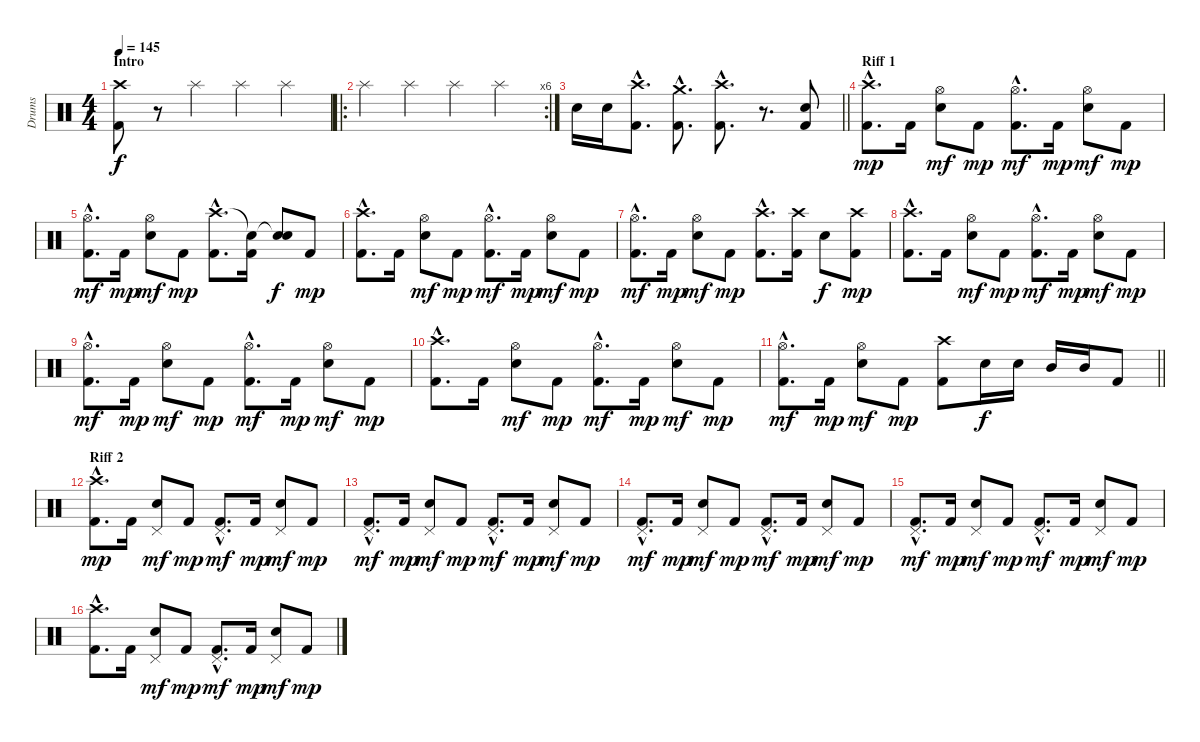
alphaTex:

\track ("Drums" "Drums") {instrument percussion}
\staff {score}
\articulation defaults
\ts (4 4)
\section ("" "Intro")
\tempo 145
\clef neutral
\ks c
("Kick (hit) 2" "Crash high (hit)").8{dy f} r.8 "Splash (hit)".4 "Splash (hit)".4 "Splash (hit)".4 |
\ro
\rc 6 "Splash (hit)".4 "Splash (hit)".4 "Splash (hit)".4 "Splash (hit)".4
|
\barLineRight lightlight "Electric Snare (hit)".16 "Electric Snare (hit)".16
("Kick (hit) 2"{hac} "Crash high (hit)"{hac}).8{d} ("Kick (hit) 2"{hac} "Crash medium (hit)"{hac}).8{d} ("Kick (hit) 2"{hac} "Crash high (hit)"{hac}).8{d} r.8{d} ("Kick (hit) 2" "Electric Snare (hit)").8 |
\section ("" "Riff 1")
("Kick (hit) 2"{hac} "Crash high (hit)"{hac}).8{d dy mp} "Kick (hit) 2".16 ("Electric Snare (hit)" "Hi-Hat (open)").8{dy mf} "Kick (hit) 2".8{dy mp} ("Kick (hit) 2"{hac} "Hi-Hat (open)"{hac}).8{d dy mf} "Kick (hit) 2".16{dy mp} ("Electric Snare (hit)" "Hi-Hat (open)").8{dy mf} "Kick (hit) 2".8{dy mp} |
("Kick (hit) 2"{hac} "Hi-Hat (open)"{hac}).8{d dy mf} "Kick (hit) 2".16{dy mp} ("Electric Snare (hit)" "Hi-Hat (open)").8{dy mf} "Kick (hit) 2".8{dy mp} ("Kick (hit) 2"{hac} "Crash high (hit)"{hac}).8{d} ("Kick (hit) 2" "Snare (hit)"{t}).16 ("Electric Snare (hit)" "Snare (hit)"{t}).8{dy f} "Kick (hit) 2".8{dy mp} |
("Kick (hit) 2"{hac} "Crash high (hit)"{hac}).8{d} "Kick (hit) 2".16 ("Electric Snare (hit)" "Hi-Hat (open)").8{dy mf} "Kick (hit) 2".8{dy mp} ("Kick (hit) 2"{hac} "Hi-Hat (open)"{hac}).8{d dy mf} "Kick (hit) 2".16{dy mp} ("Electric Snare (hit)" "Hi-Hat (open)").8{dy mf} "Kick (hit) 2".8{dy mp} |
("Kick (hit) 2"{hac} "Hi-Hat (open)"{hac}).8{d dy mf} "Kick (hit) 2".16{dy mp} ("Electric Snare (hit)" "Hi-Hat (open)").8{dy mf} "Kick (hit) 2".8{dy mp} ("Kick (hit) 2"{hac} "Crash high (hit)"{hac}).8{d} ("Kick (hit) 2" "Crash high (hit)").16 "Electric Snare (hit)".8{dy f} ("Kick (hit) 2" "Crash high (hit)").8{dy mp} |
("Kick (hit) 2"{hac} "Crash high (hit)"{hac}).8{d} "Kick (hit) 2".16 ("Electric Snare (hit)" "Hi-Hat (open)").8{dy mf} "Kick (hit) 2".8{dy mp} ("Kick (hit) 2"{hac} "Hi-Hat (open)"{hac}).8{d dy mf} "Kick (hit) 2".16{dy mp} ("Electric Snare (hit)" "Hi-Hat (open)").8{dy mf} "Kick (hit) 2".8{dy mp} |
("Kick (hit) 2"{hac} "Hi-Hat (open)"{hac}).8{d dy mf} "Kick (hit) 2".16{dy mp} ("Electric Snare (hit)" "Hi-Hat (open)").8{dy mf} "Kick (hit) 2".8{dy mp} ("Kick (hit) 2"{hac} "Hi-Hat (open)"{hac}).8{d dy mf} "Kick (hit) 2".16{dy mp} ("Electric Snare (hit)" "Hi-Hat (open)").8{dy mf} "Kick (hit) 2".8{dy mp} |
("Kick (hit) 2"{hac} "Crash high (hit)"{hac}).8{d} "Kick (hit) 2".16 ("Electric Snare (hit)" "Hi-Hat (open)").8{dy mf} "Kick (hit) 2".8{dy mp} ("Kick (hit) 2"{hac} "Hi-Hat (open)"{hac}).8{d dy mf} "Kick (hit) 2".16{dy mp} ("Electric Snare (hit)" "Hi-Hat (open)").8{dy mf} "Kick (hit) 2".8{dy mp} |
\barLineRight lightlight
("Kick (hit) 2"{hac} "Hi-Hat (open)"{hac}).8{d dy mf} "Kick (hit) 2".16{dy mp} ("Electric Snare (hit)" "Hi-Hat (open)").8{dy mf} "Kick (hit) 2".8{dy mp} ("Kick (hit) 2" "Crash high (hit)").8 "Electric Snare (hit)".16{dy f} "Electric Snare (hit)".16 "Mid Tom (hit)".16 "Mid Tom (hit)".16 "Kick (hit) 2".8 |
\section ("" "Riff 2")
("Kick (hit) 2"{hac} "Crash high (hit)"{hac}).8{d dy mp} "Kick (hit) 2".16 ("Electric Snare (hit)" "Pedal Hi-Hat (hit)").8{dy mf} "Kick (hit) 2".8{dy mp} ("Kick (hit) 2"{hac} "Pedal Hi-Hat (hit)"{hac}).8{d dy mf} "Kick (hit) 2".16{dy mp} ("Electric Snare (hit)" "Pedal Hi-Hat (hit)").8{dy mf} "Kick (hit) 2".8{dy mp} |
("Kick (hit) 2"{hac} "Pedal Hi-Hat (hit)"{hac}).8{d dy mf} "Kick (hit) 2".16{dy mp} ("Electric Snare (hit)" "Pedal Hi-Hat (hit)").8{dy mf} "Kick (hit) 2".8{dy mp} ("Kick (hit) 2"{hac} "Pedal Hi-Hat (hit)"{hac}).8{d dy mf} "Kick (hit) 2".16{dy mp} ("Electric Snare (hit)" "Pedal Hi-Hat (hit)").8{dy mf} "Kick (hit) 2".8{dy mp} |
("Kick (hit) 2"{hac} "Pedal Hi-Hat (hit)"{hac}).8{d dy mf} "Kick (hit) 2".16{dy mp} ("Electric Snare (hit)" "Pedal Hi-Hat (hit)").8{dy mf} "Kick (hit) 2".8{dy mp} ("Kick (hit) 2"{hac} "Pedal Hi-Hat (hit)"{hac}).8{d dy mf} "Kick (hit) 2".16{dy mp} ("Electric Snare (hit)" "Pedal Hi-Hat (hit)").8{dy mf} "Kick (hit) 2".8{dy mp} |
("Kick (hit) 2"{hac} "Pedal Hi-Hat (hit)"{hac}).8{d dy mf} "Kick (hit) 2".16{dy mp} ("Electric Snare (hit)" "Pedal Hi-Hat (hit)").8{dy mf} "Kick (hit) 2".8{dy mp} ("Kick (hit) 2"{hac} "Pedal Hi-Hat (hit)"{hac}).8{d dy mf} "Kick (hit) 2".16{dy mp} ("Electric Snare (hit)" "Pedal Hi-Hat (hit)").8{dy mf} "Kick (hit) 2".8{dy mp} |
("Kick (hit) 2"{hac} "Crash high (hit)"{hac}).8{d} "Kick (hit) 2".16 ("Electric Snare (hit)" "Pedal Hi-Hat (hit)").8{dy mf} "Kick (hit) 2".8{dy mp} ("Kick (hit) 2"{hac} "Pedal Hi-Hat (hit)"{hac}).8{d dy mf} "Kick (hit) 2".16{dy mp} ("Electric Snare (hit)" "Pedal Hi-Hat (hit)").8{dy mf} "Kick (hit) 2".8{dy mp}
